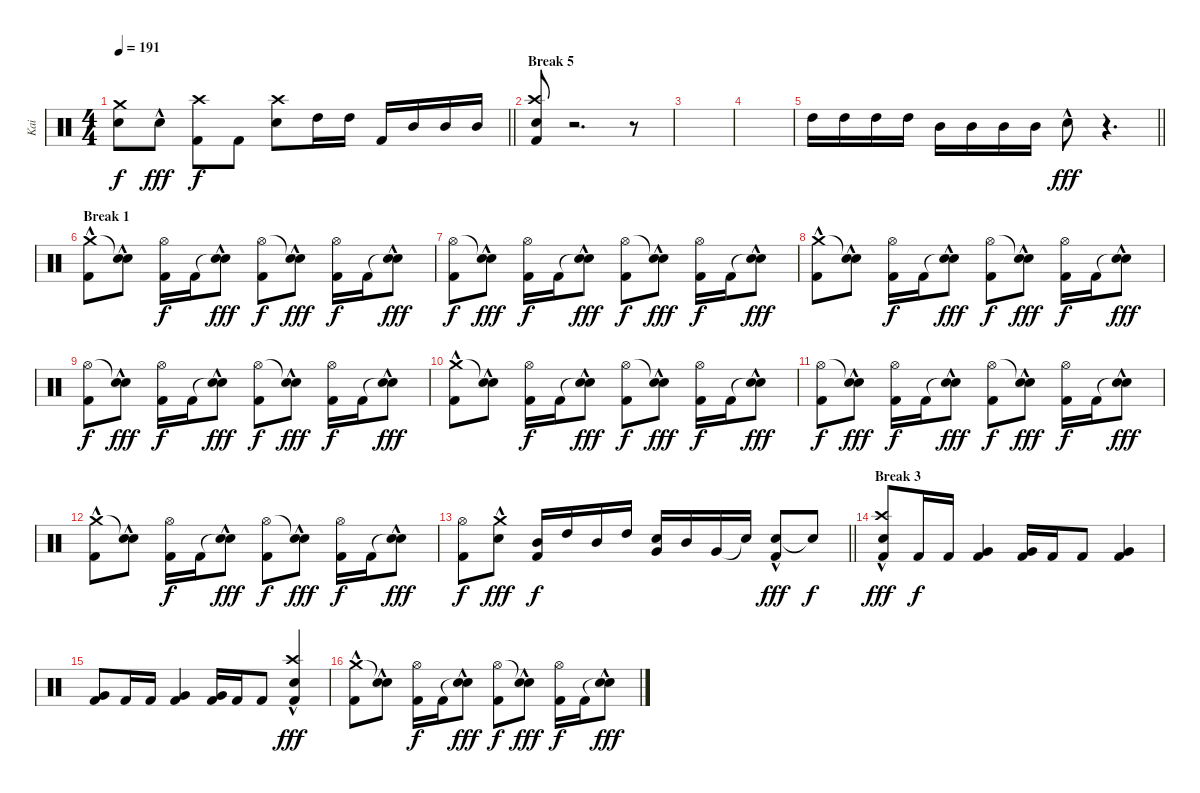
\track ("Kai" "Kai") {instrument percussion}
\staff {score}
\articulation defaults
\ts (4 4)
\tempo 191
\clef neutral
\barLineRight lightlight
\ks c
("Crash medium (hit)" "Snare (hit)"{t}).8{dy f} "Snare (hit) 2"{hac}.8{dy fff} ("Crash high (hit)" "Kick (hit) 2").8{dy f} "Kick (hit) 2".8 ("Crash high (hit)" "Snare (hit) 2").8 "High Tom (hit)".16 "High Tom (hit)".16 "Kick (hit) 2".16 "Mid Tom (hit)".16 "Mid Tom (hit)".16 "Mid Tom (hit)".16 |
\section ("" "Break 5")
("Crash high (hit)" "Snare (hit) 2" "Kick (hit) 2").8 r.2{d} r.8 |
|
|
\barLineRight lightlight "High Tom (hit)".16 "High Tom (hit)".16 "High Tom (hit)".16 "High Tom (hit)".16 "Mid Tom (hit)".16 "Mid Tom (hit)".16 "Mid Tom (hit)".16 "Mid Tom (hit)".16 "Snare (hit) 2"{hac}.8{dy fff}
r.4{d} |
\section ("" "Break 1")
("Crash medium (hit)"{hac} "Kick (hit) 2").8 ("Snare (hit)"{t} "Snare (hit) 2"{hac}).8 ("Hi-Hat (open)" "Kick (hit) 2").16{dy f} "Kick (hit) 2".16 ("Snare (hit)"{t} "Snare (hit) 2"{hac}).8{dy fff} ("Hi-Hat (open)" "Kick (hit) 2").8{dy f} ("Snare (hit)"{t} "Snare (hit) 2"{hac}).8{dy fff} ("Hi-Hat (open)" "Kick (hit) 2").16{dy f} "Kick (hit) 2".16 ("Snare (hit)"{t} "Snare (hit) 2"{hac}).8{dy fff} |
("Hi-Hat (open)" "Kick (hit) 2").8{dy f} ("Snare (hit)"{t} "Snare (hit) 2"{hac}).8{dy fff} ("Hi-Hat (open)" "Kick (hit) 2").16{dy f} "Kick (hit) 2".16 ("Snare (hit)"{t} "Snare (hit) 2"{hac}).8{dy fff} ("Hi-Hat (open)" "Kick (hit) 2").8{dy f} ("Snare (hit)"{t} "Snare (hit) 2"{hac}).8{dy fff} ("Hi-Hat (open)" "Kick (hit) 2").16{dy f} "Kick (hit) 2".16 ("Snare (hit)"{t} "Snare (hit) 2"{hac}).8{dy fff} |
("Crash medium (hit)"{hac} "Kick (hit) 2").8 ("Snare (hit)"{t} "Snare (hit) 2"{hac}).8 ("Hi-Hat (open)" "Kick (hit) 2").16{dy f} "Kick (hit) 2".16 ("Snare (hit)"{t} "Snare (hit) 2"{hac}).8{dy fff} ("Hi-Hat (open)" "Kick (hit) 2").8{dy f} ("Snare (hit)"{t} "Snare (hit) 2"{hac}).8{dy fff} ("Hi-Hat (open)" "Kick (hit) 2").16{dy f} "Kick (hit) 2".16 ("Snare (hit)"{t} "Snare (hit) 2"{hac}).8{dy fff} |
("Hi-Hat (open)" "Kick (hit) 2").8{dy f} ("Snare (hit)"{t} "Snare (hit) 2"{hac}).8{dy fff} ("Hi-Hat (open)" "Kick (hit) 2").16{dy f} "Kick (hit) 2".16 ("Snare (hit)"{t} "Snare (hit) 2"{hac}).8{dy fff} ("Hi-Hat (open)" "Kick (hit) 2").8{dy f} ("Snare (hit)"{t} "Snare (hit) 2"{hac}).8{dy fff} ("Hi-Hat (open)" "Kick (hit) 2").16{dy f} "Kick (hit) 2".16 ("Snare (hit)"{t} "Snare (hit) 2"{hac}).8{dy fff} |
("Crash medium (hit)"{hac} "Kick (hit) 2").8 ("Snare (hit)"{t} "Snare (hit) 2"{hac}).8 ("Hi-Hat (open)" "Kick (hit) 2").16{dy f} "Kick (hit) 2".16 ("Snare (hit)"{t} "Snare (hit) 2"{hac}).8{dy fff} ("Hi-Hat (open)" "Kick (hit) 2").8{dy f} ("Snare (hit)"{t} "Snare (hit) 2"{hac}).8{dy fff} ("Hi-Hat (open)" "Kick (hit) 2").16{dy f} "Kick (hit) 2".16 ("Snare (hit)"{t} "Snare (hit) 2"{hac}).8{dy fff} |
("Hi-Hat (open)" "Kick (hit) 2").8{dy f} ("Snare (hit)"{t} "Snare (hit) 2"{hac}).8{dy fff} ("Hi-Hat (open)" "Kick (hit) 2").16{dy f} "Kick (hit) 2".16 ("Snare (hit)"{t} "Snare (hit) 2"{hac}).8{dy fff} ("Hi-Hat (open)" "Kick (hit) 2").8{dy f} ("Snare (hit)"{t} "Snare (hit) 2"{hac}).8{dy fff} ("Hi-Hat (open)" "Kick (hit) 2").16{dy f} "Kick (hit) 2".16 ("Snare (hit)"{t} "Snare (hit) 2"{hac}).8{dy fff} |
("Crash medium (hit)"{hac} "Kick (hit) 2").8 ("Snare (hit)"{t} "Snare (hit) 2"{hac}).8 ("Hi-Hat (open)" "Kick (hit) 2").16{dy f} "Kick (hit) 2".16 ("Snare (hit)"{t} "Snare (hit) 2"{hac}).8{dy fff} ("Hi-Hat (open)" "Kick (hit) 2").8{dy f} ("Snare (hit)"{t} "Snare (hit) 2"{hac}).8{dy fff} ("Hi-Hat (open)" "Kick (hit) 2").16{dy f} "Kick (hit) 2".16 ("Snare (hit)"{t} "Snare (hit) 2"{hac}).8{dy fff} |
\barLineRight lightlight
("Hi-Hat (open)" "Kick (hit) 2").8{dy f} ("Crash medium (hit)"{hac} "Snare (hit) 2"{hac}).8{dy fff} ("Mid Tom (hit)" "Kick (hit) 2").16{dy f} "High Tom (hit)".16 "Mid Tom (hit)".16 "High Tom (hit)".16 ("Very Low Tom (hit)" "Snare (hit) 2").16 "Mid Tom (hit)".16 "Very Low Tom (hit)".16 "Snare (hit)"{t}.16 ("Snare (hit) 2"{hac} "Kick (hit) 2").8{dy fff} "Snare (hit)"{t}.8{dy f} |
\section ("" "Break 3")
("Crash high (hit)"{hac} "Snare (hit) 2" "Kick (hit) 2").8{dy fff} "Kick (hit) 2".16{dy f} "Kick (hit) 2".16 ("Very Low Tom (hit)" "Kick (hit) 2").4 ("Very Low Tom (hit)" "Kick (hit) 2").16 "Kick (hit) 2".16 "Kick (hit) 2".8 ("Very Low Tom (hit)" "Kick (hit) 2").4 |
("Very Low Tom (hit)" "Kick (hit) 2").8 "Kick (hit) 2".16 "Kick (hit) 2".16 ("Very Low Tom (hit)" "Kick (hit) 2").4 ("Very Low Tom (hit)" "Kick (hit) 2").16 "Kick (hit) 2".16 "Kick (hit) 2".8 ("Crash high (hit)"{hac} "Snare (hit) 2"{hac} "Kick (hit) 2").4{dy fff} |
("Crash medium (hit)"{hac} "Kick (hit) 2").8 ("Snare (hit)"{t} "Snare (hit) 2"{hac}).8 ("Hi-Hat (open)" "Kick (hit) 2").16{dy f} "Kick (hit) 2".16 ("Snare (hit)"{t} "Snare (hit) 2"{hac}).8{dy fff} ("Hi-Hat (open)" "Kick (hit) 2").8{dy f} ("Snare (hit)"{t} "Snare (hit) 2"{hac}).8{dy fff} ("Hi-Hat (open)" "Kick (hit) 2").16{dy f} "Kick (hit) 2".16 ("Snare (hit)"{t} "Snare (hit) 2"{hac}).8{dy fff}
